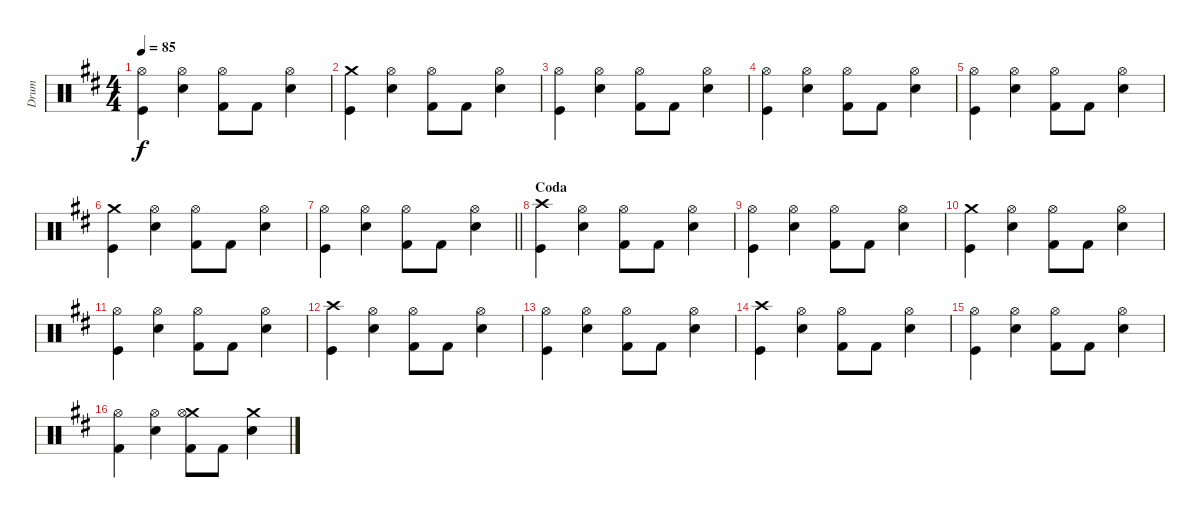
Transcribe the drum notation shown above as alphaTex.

\track ("Drum" "Drum") {instrument percussion}
\staff {score}
\articulation defaults
\ts (4 4)
\tempo 85
\clef neutral
\ks d
("Kick (hit)" "Hi-Hat (open)").4{dy f} ("Electric Snare (hit)" "Hi-Hat (open)").4 ("Kick (hit) 2" "Hi-Hat (open)").8 "Kick (hit) 2".8 ("Snare (hit) 2" "Hi-Hat (open)").4 |
("Kick (hit)" "Crash medium (hit)").4 ("Electric Snare (hit)" "Hi-Hat (open)").4 ("Kick (hit) 2" "Hi-Hat (open)").8 "Kick (hit) 2".8 ("Snare (hit) 2" "Hi-Hat (open)").4 |
("Kick (hit)" "Hi-Hat (open)").4 ("Electric Snare (hit)" "Hi-Hat (open)").4 ("Kick (hit) 2" "Hi-Hat (open)").8 "Kick (hit) 2".8 ("Snare (hit) 2" "Hi-Hat (open)").4 |
("Kick (hit)" "Hi-Hat (open)").4 ("Electric Snare (hit)" "Hi-Hat (open)").4 ("Kick (hit) 2" "Hi-Hat (open)").8 "Kick (hit) 2".8 ("Snare (hit) 2" "Hi-Hat (open)").4 |
("Kick (hit)" "Hi-Hat (open)").4 ("Electric Snare (hit)" "Hi-Hat (open)").4 ("Kick (hit) 2" "Hi-Hat (open)").8 "Kick (hit) 2".8 ("Snare (hit) 2" "Hi-Hat (open)").4 |
("Kick (hit)" "Crash medium (hit)").4 ("Electric Snare (hit)" "Hi-Hat (open)").4 ("Kick (hit) 2" "Hi-Hat (open)").8 "Kick (hit) 2".8 ("Snare (hit) 2" "Hi-Hat (open)").4 |
\barLineRight lightlight
("Kick (hit)" "Hi-Hat (open)").4 ("Electric Snare (hit)" "Hi-Hat (open)").4 ("Kick (hit) 2" "Hi-Hat (open)").8 "Kick (hit) 2".8 ("Snare (hit) 2" "Hi-Hat (open)").4 |
\section ("" "Coda")
("Kick (hit)" "Crash high (hit)").4 ("Electric Snare (hit)" "Hi-Hat (open)").4 ("Kick (hit) 2" "Hi-Hat (open)").8 "Kick (hit) 2".8 ("Snare (hit) 2" "Hi-Hat (open)").4 |
("Kick (hit)" "Hi-Hat (open)").4 ("Electric Snare (hit)" "Hi-Hat (open)").4 ("Kick (hit) 2" "Hi-Hat (open)").8 "Kick (hit) 2".8 ("Snare (hit) 2" "Hi-Hat (open)").4 |
("Kick (hit)" "Crash medium (hit)").4 ("Electric Snare (hit)" "Hi-Hat (open)").4 ("Kick (hit) 2" "Hi-Hat (open)").8 "Kick (hit) 2".8 ("Snare (hit) 2" "Hi-Hat (open)").4 |
("Kick (hit)" "Hi-Hat (open)").4 ("Electric Snare (hit)" "Hi-Hat (open)").4 ("Kick (hit) 2" "Hi-Hat (open)").8 "Kick (hit) 2".8 ("Snare (hit) 2" "Hi-Hat (open)").4 |
("Kick (hit)" "Crash high (hit)").4 ("Electric Snare (hit)" "Hi-Hat (open)").4 ("Kick (hit) 2" "Hi-Hat (open)").8 "Kick (hit) 2".8 ("Snare (hit) 2" "Hi-Hat (open)").4 |
("Kick (hit)" "Hi-Hat (open)").4 ("Electric Snare (hit)" "Hi-Hat (open)").4 ("Kick (hit) 2" "Hi-Hat (open)").8 "Kick (hit) 2".8 ("Snare (hit) 2" "Hi-Hat (open)").4 |
("Kick (hit)" "Crash high (hit)").4 ("Electric Snare (hit)" "Hi-Hat (open)").4 ("Kick (hit) 2" "Hi-Hat (open)").8 "Kick (hit) 2".8 ("Snare (hit) 2" "Hi-Hat (open)").4 |
("Kick (hit)" "Hi-Hat (open)").4 ("Electric Snare (hit)" "Hi-Hat (open)").4 ("Kick (hit) 2" "Hi-Hat (open)").8 "Kick (hit) 2".8 ("Snare (hit) 2" "Hi-Hat (open)").4 |
("Kick (hit) 2" "Hi-Hat (open)").4 ("Electric Snare (hit)" "Hi-Hat (open)").4 ("Crash medium (hit)" "Hi-Hat (open)" "Kick (hit) 2").8 "Kick (hit) 2".8 ("Crash medium (hit)" "Electric Snare (hit)").4
